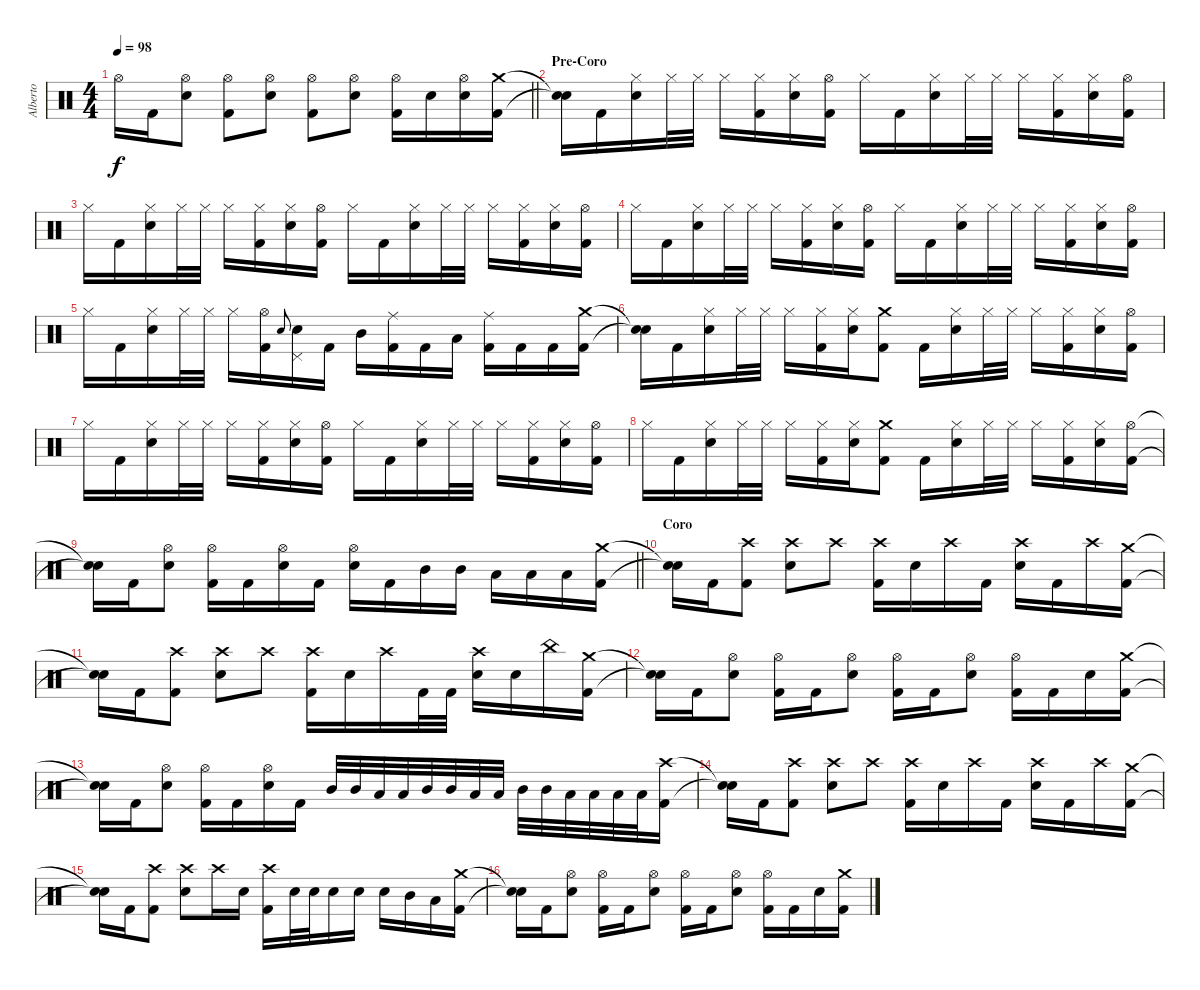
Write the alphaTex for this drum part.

\track ("Alberto" "Alberto") {instrument percussion}
\staff
\articulation defaults
\ts (4 4)
\tempo 98
\clef neutral
\barLineRight lightlight
\ks c "Hi-Hat (open)".16{dy f} "Kick (hit) 2".16
("Hi-Hat (open)" "Electric Snare (hit)").8 ("Hi-Hat (open)" "Kick (hit) 2").8 ("Hi-Hat (open)" "Electric Snare (hit)").8 ("Hi-Hat (open)" "Kick (hit) 2").8 ("Hi-Hat (open)" "Electric Snare (hit)").8 ("Hi-Hat (open)" "Kick (hit) 2").16 "Electric Snare (hit)".16 ("Hi-Hat (open)" "Electric Snare (hit)").16 ("Crash medium (hit)" "Kick (hit) 2").16 |
\section ("" "Pre-Coro")
("Snare (hit)"{t} "Snare (hit)"{t}).16 "Kick (hit) 2".16 ("Hi-Hat (closed)" "Electric Snare (hit)").16 "Hi-Hat (closed)".32 "Hi-Hat (closed)".32 "Hi-Hat (closed)".16 ("Hi-Hat (closed)" "Kick (hit) 2").16 ("Hi-Hat (closed)" "Electric Snare (hit)").16 ("Hi-Hat (open)" "Kick (hit) 2").16 "Hi-Hat (closed)".16 "Kick (hit) 2".16 ("Hi-Hat (closed)" "Electric Snare (hit)").16 "Hi-Hat (closed)".32 "Hi-Hat (closed)".32 "Hi-Hat (closed)".16 ("Hi-Hat (closed)" "Kick (hit) 2").16 ("Hi-Hat (closed)" "Electric Snare (hit)").16 ("Hi-Hat (open)" "Kick (hit) 2").16 |
"Hi-Hat (closed)".16 "Kick (hit) 2".16 ("Hi-Hat (closed)" "Electric Snare (hit)").16 "Hi-Hat (closed)".32 "Hi-Hat (closed)".32 "Hi-Hat (closed)".16 ("Hi-Hat (closed)" "Kick (hit) 2").16 ("Hi-Hat (closed)" "Electric Snare (hit)").16 ("Hi-Hat (open)" "Kick (hit) 2").16 "Hi-Hat (closed)".16 "Kick (hit) 2".16 ("Hi-Hat (closed)" "Electric Snare (hit)").16 "Hi-Hat (closed)".32 "Hi-Hat (closed)".32 "Hi-Hat (closed)".16 ("Hi-Hat (closed)" "Kick (hit) 2").16 ("Hi-Hat (closed)" "Electric Snare (hit)").16 ("Hi-Hat (open)" "Kick (hit) 2").16 |
"Hi-Hat (closed)".16 "Kick (hit) 2".16 ("Hi-Hat (closed)" "Electric Snare (hit)").16 "Hi-Hat (closed)".32 "Hi-Hat (closed)".32 "Hi-Hat (closed)".16 ("Hi-Hat (closed)" "Kick (hit) 2").16 ("Hi-Hat (closed)" "Electric Snare (hit)").16 ("Hi-Hat (open)" "Kick (hit) 2").16 "Hi-Hat (closed)".16 "Kick (hit) 2".16 ("Hi-Hat (closed)" "Electric Snare (hit)").16 "Hi-Hat (closed)".32 "Hi-Hat (closed)".32 "Hi-Hat (closed)".16 ("Hi-Hat (closed)" "Kick (hit) 2").16 ("Hi-Hat (closed)" "Electric Snare (hit)").16 ("Hi-Hat (open)" "Kick (hit) 2").16 |
"Hi-Hat (closed)".16 "Kick (hit) 2".16 ("Hi-Hat (closed)" "Electric Snare (hit)").16 "Hi-Hat (closed)".32 "Hi-Hat (closed)".32 "Hi-Hat (closed)".16 ("Hi-Hat (open)" "Kick (hit) 2").16 "Electric Snare (hit)".8{gr onbeat} ("Pedal Hi-Hat (hit)" "Electric Snare (hit)").16 "Kick (hit) 2".16 "Mid Tom (hit)".16 ("Ride (middle)" "Kick (hit) 2").16 "Kick (hit) 2".16 "Low Tom (hit)".16 ("Ride (middle)" "Kick (hit) 2").16 "Kick (hit) 2".16 "Kick (hit) 2".16 ("Crash medium (hit)" "Kick (hit) 2").16 |
("Snare (hit)"{t} "Snare (hit)"{t}).16 "Kick (hit) 2".16 ("Hi-Hat (closed)" "Electric Snare (hit)").16 "Hi-Hat (closed)".32 "Hi-Hat (closed)".32 "Hi-Hat (closed)".16 ("Hi-Hat (closed)" "Kick (hit) 2").16 ("Hi-Hat (closed)" "Electric Snare (hit)").16 ("Crash medium (hit)" "Kick (hit) 2").8 "Kick (hit) 2".16 ("Hi-Hat (closed)" "Electric Snare (hit)").16 "Hi-Hat (closed)".32 "Hi-Hat (closed)".32 "Hi-Hat (closed)".16 ("Hi-Hat (closed)" "Kick (hit) 2").16 ("Hi-Hat (closed)" "Electric Snare (hit)").16 ("Hi-Hat (open)" "Kick (hit) 2").16 |
"Hi-Hat (closed)".16 "Kick (hit) 2".16 ("Hi-Hat (closed)" "Electric Snare (hit)").16 "Hi-Hat (closed)".32 "Hi-Hat (closed)".32 "Hi-Hat (closed)".16 ("Hi-Hat (closed)" "Kick (hit) 2").16 ("Hi-Hat (closed)" "Electric Snare (hit)").16 ("Hi-Hat (open)" "Kick (hit) 2").16 "Hi-Hat (closed)".16 "Kick (hit) 2".16 ("Hi-Hat (closed)" "Electric Snare (hit)").16 "Hi-Hat (closed)".32 "Hi-Hat (closed)".32 "Hi-Hat (closed)".16 ("Hi-Hat (closed)" "Kick (hit) 2").16 ("Hi-Hat (closed)" "Electric Snare (hit)").16 ("Hi-Hat (open)" "Kick (hit) 2").16 |
"Hi-Hat (closed)".16 "Kick (hit) 2".16 ("Hi-Hat (closed)" "Electric Snare (hit)").16 "Hi-Hat (closed)".32 "Hi-Hat (closed)".32 "Hi-Hat (closed)".16 ("Hi-Hat (closed)" "Kick (hit) 2").16 ("Hi-Hat (closed)" "Electric Snare (hit)").16 ("Crash medium (hit)" "Kick (hit) 2").8 "Kick (hit) 2".16 ("Hi-Hat (closed)" "Electric Snare (hit)").16 "Hi-Hat (closed)".32 "Hi-Hat (closed)".32 "Hi-Hat (closed)".16 ("Hi-Hat (closed)" "Kick (hit) 2").16 ("Hi-Hat (closed)" "Electric Snare (hit)").16 ("Hi-Hat (open)" "Kick (hit) 2").16 |
\barLineRight lightlight
("Snare (hit)"{t} "Snare (hit)"{t}).16 "Kick (hit) 2".16 ("Hi-Hat (open)" "Electric Snare (hit)").8 ("Hi-Hat (open)" "Kick (hit) 2").16 "Kick (hit) 2".16 ("Hi-Hat (open)" "Electric Snare (hit)").16 "Kick (hit) 2".16 ("Hi-Hat (open)" "Electric Snare (hit)").16 "Kick (hit) 2".16 "Mid Tom (hit)".16 "Mid Tom (hit)".16 "Low Tom (hit)".16 "Low Tom (hit)".16 "Low Floor Tom (hit)".16 ("Crash medium (hit)" "Kick (hit) 2").16 |
\section ("" "Coro")
("Snare (hit)"{t} "Snare (hit)"{t}).16 "Kick (hit) 2".16 ("Crash high (hit)" "Kick (hit) 2").8 ("Crash high (hit)" "Electric Snare (hit)").8 "Crash high (hit)".8 ("Crash high (hit)" "Kick (hit) 2").16 "Electric Snare (hit)".16 "Crash high (hit)".16 "Kick (hit) 2".16 ("Crash high (hit)" "Electric Snare (hit)").16 "Kick (hit) 2".16 "Crash high (hit)".16 ("Crash medium (hit)" "Kick (hit) 2").16 |
("Snare (hit)"{t} "Snare (hit)"{t}).16 "Kick (hit) 2".16 ("Crash high (hit)" "Kick (hit) 2").8 ("Crash high (hit)" "Electric Snare (hit)").8 "Crash high (hit)".8 ("Crash high (hit)" "Kick (hit) 2").16 "Electric Snare (hit)".16 "Crash high (hit)".16 "Kick (hit) 2".32 "Kick (hit) 2".32 ("Crash high (hit)" "Electric Snare (hit)").16 "Electric Snare (hit)".16 "China (hit)".16 ("Crash medium (hit)" "Kick (hit) 2").16 |
("Snare (hit)"{t} "Snare (hit)"{t}).16 "Kick (hit) 2".16 ("Hi-Hat (open)" "Electric Snare (hit)").8 ("Hi-Hat (open)" "Kick (hit) 2").16 "Kick (hit) 2".16 ("Hi-Hat (open)" "Electric Snare (hit)").8 ("Hi-Hat (open)" "Kick (hit) 2").16 "Kick (hit) 2".16 ("Hi-Hat (open)" "Electric Snare (hit)").8 ("Hi-Hat (open)" "Kick (hit) 2").16 "Kick (hit) 2".16 "Electric Snare (hit)".16 ("Crash medium (hit)" "Kick (hit) 2").16 |
("Snare (hit)"{t} "Snare (hit)"{t}).16 "Kick (hit) 2".16 ("Hi-Hat (open)" "Electric Snare (hit)").8 ("Hi-Hat (open)" "Kick (hit) 2").16 "Kick (hit) 2".16 ("Hi-Hat (open)" "Electric Snare (hit)").16 "Kick (hit) 2".16 "Mid Tom (hit)".32 "Mid Tom (hit)".32 "Low Tom (hit)".32 "Low Tom (hit)".32 "Mid Tom (hit)".32 "Mid Tom (hit)".32 "Low Tom (hit)".32 "Low Tom (hit)".32 "Mid Tom (hit)".32 "Mid Tom (hit)".32 "Low Tom (hit)".32 "Low Tom (hit)".32 "Low Floor Tom (hit)".32 "Low Floor Tom (hit)".32 ("Crash high (hit)" "Kick (hit) 2").16 |
("Snare (hit)"{t} "Snare (hit)"{t}).16 "Kick (hit) 2".16 ("Crash high (hit)" "Kick (hit) 2").8 ("Crash high (hit)" "Electric Snare (hit)").8 "Crash high (hit)".8 ("Crash high (hit)" "Kick (hit) 2").16 "Electric Snare (hit)".16 "Crash high (hit)".16 "Kick (hit) 2".16 ("Crash high (hit)" "Electric Snare (hit)").16 "Kick (hit) 2".16 "Crash high (hit)".16 ("Crash medium (hit)" "Kick (hit) 2").16 |
("Snare (hit)"{t} "Snare (hit)"{t}).16 "Kick (hit) 2".16 ("Crash high (hit)" "Kick (hit) 2").8 ("Crash high (hit)" "Electric Snare (hit)").8 "Crash high (hit)".16 "Electric Snare (hit)".16 ("Crash high (hit)" "Kick (hit) 2").16 "Electric Snare (hit)".32 "Electric Snare (hit)".32 "Electric Snare (hit)".16 "Electric Snare (hit)".16 "Electric Snare (hit)".16 "Mid Tom (hit)".16 "Low Tom (hit)".16 ("Crash medium (hit)" "Kick (hit) 2").16 |
("Snare (hit)"{t} "Snare (hit)"{t}).16 "Kick (hit) 2".16 ("Hi-Hat (open)" "Electric Snare (hit)").8 ("Hi-Hat (open)" "Kick (hit) 2").16 "Kick (hit) 2".16 ("Hi-Hat (open)" "Electric Snare (hit)").8 ("Hi-Hat (open)" "Kick (hit) 2").16 "Kick (hit) 2".16 ("Hi-Hat (open)" "Electric Snare (hit)").8 ("Hi-Hat (open)" "Kick (hit) 2").16 "Kick (hit) 2".16 "Electric Snare (hit)".16 ("Crash medium (hit)" "Kick (hit) 2").16
